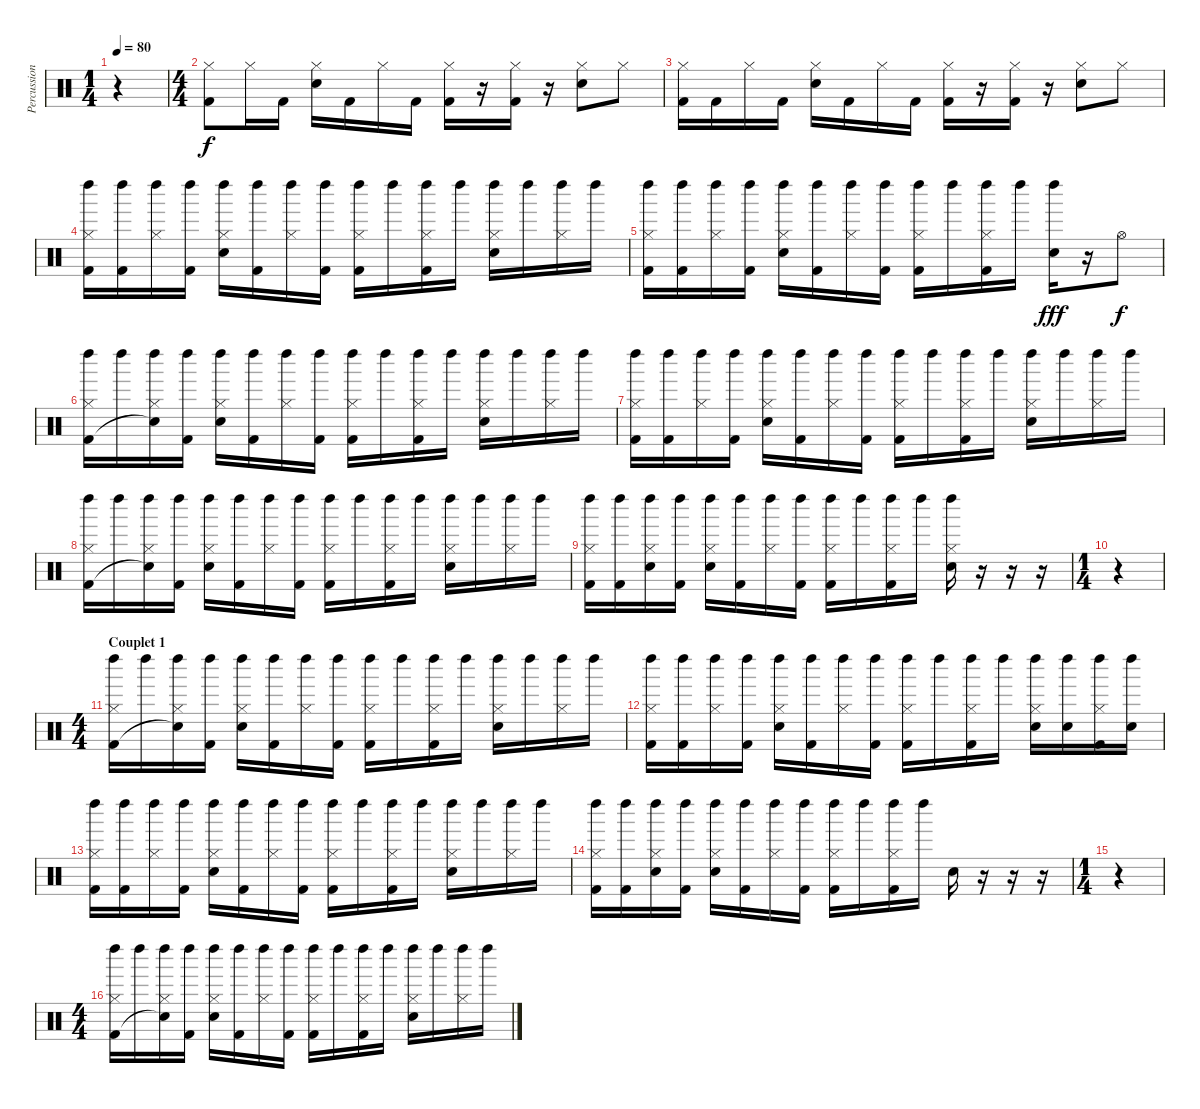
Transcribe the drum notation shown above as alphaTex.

\track ("Percussions" "Percussion") {instrument percussion}
\staff {score}
\articulation defaults
\ts (1 4)
\tempo 80
\clef neutral
\ks c
r.4{dy f} |
\ts (4 4)
("Hi-Hat (closed)" "Kick (hit) 2").8 "Hi-Hat (closed)".16 "Kick (hit) 2".16 ("Hi-Hat (closed)" "Electric Snare (hit)").16 "Kick (hit) 2".16 "Hi-Hat (closed)".16 "Kick (hit) 2".16 ("Hi-Hat (closed)" "Kick (hit) 2").16 r.16 ("Hi-Hat (closed)" "Kick (hit) 2").16 r.16 ("Hi-Hat (closed)" "Electric Snare (hit)").8 "Hi-Hat (closed)".8 |
("Hi-Hat (closed)" "Kick (hit) 2").16 "Kick (hit) 2".16 "Hi-Hat (closed)".16 "Kick (hit) 2".16 ("Hi-Hat (closed)" "Electric Snare (hit)").16 "Kick (hit) 2".16 "Hi-Hat (closed)".16 "Kick (hit) 2".16 ("Hi-Hat (closed)" "Kick (hit) 2").16 r.16 ("Hi-Hat (closed)" "Kick (hit) 2").16 r.16 ("Hi-Hat (closed)" "Electric Snare (hit)").8 "Hi-Hat (closed)".8 |
("Hi-Hat (closed)" "Kick (hit) 2" "Left Maraca (hit)").16 ("Kick (hit) 2" "Left Maraca (hit)").16 ("Hi-Hat (closed)" "Left Maraca (hit)").16 ("Kick (hit) 2" "Left Maraca (hit)").16 ("Hi-Hat (closed)" "Electric Snare (hit)" "Left Maraca (hit)").16 ("Kick (hit) 2" "Left Maraca (hit)").16 ("Hi-Hat (closed)" "Left Maraca (hit)").16 ("Kick (hit) 2" "Left Maraca (hit)").16 ("Hi-Hat (closed)" "Kick (hit) 2" "Left Maraca (hit)").16 "Left Maraca (hit)".16 ("Hi-Hat (closed)" "Kick (hit) 2" "Left Maraca (hit)").16 "Left Maraca (hit)".16 ("Hi-Hat (closed)" "Electric Snare (hit)" "Left Maraca (hit)").16 "Left Maraca (hit)".16 ("Hi-Hat (closed)" "Left Maraca (hit)").16 "Left Maraca (hit)".16 |
("Hi-Hat (closed)" "Kick (hit) 2" "Left Maraca (hit)").16 ("Kick (hit) 2" "Left Maraca (hit)").16 ("Hi-Hat (closed)" "Left Maraca (hit)").16 ("Kick (hit) 2" "Left Maraca (hit)").16 ("Hi-Hat (closed)" "Electric Snare (hit)" "Left Maraca (hit)").16 ("Kick (hit) 2" "Left Maraca (hit)").16 ("Hi-Hat (closed)" "Left Maraca (hit)").16 ("Kick (hit) 2" "Left Maraca (hit)").16 ("Hi-Hat (closed)" "Kick (hit) 2" "Left Maraca (hit)").16 "Left Maraca (hit)".16 ("Hi-Hat (closed)" "Kick (hit) 2" "Left Maraca (hit)").16 "Left Maraca (hit)".16 ("Electric Snare (hit)" "Left Maraca (hit)").16{dy fff} r.16 "Hi-Hat (open)".8{dy f} |
("Hi-Hat (closed)" "Kick (hit) 2" "Left Maraca (hit)").16 "Left Maraca (hit)".16 ("Hi-Hat (closed)" "Snare (hit)"{t} "Left Maraca (hit)").16 ("Kick (hit) 2" "Left Maraca (hit)").16 ("Hi-Hat (closed)" "Electric Snare (hit)" "Left Maraca (hit)").16 ("Kick (hit) 2" "Left Maraca (hit)").16 ("Hi-Hat (closed)" "Left Maraca (hit)").16 ("Kick (hit) 2" "Left Maraca (hit)").16 ("Hi-Hat (closed)" "Kick (hit) 2" "Left Maraca (hit)").16 "Left Maraca (hit)".16 ("Hi-Hat (closed)" "Kick (hit) 2" "Left Maraca (hit)").16 "Left Maraca (hit)".16 ("Hi-Hat (closed)" "Electric Snare (hit)" "Left Maraca (hit)").16 "Left Maraca (hit)".16 ("Hi-Hat (closed)" "Left Maraca (hit)").16 "Left Maraca (hit)".16 |
("Hi-Hat (closed)" "Kick (hit) 2" "Left Maraca (hit)").16 ("Kick (hit) 2" "Left Maraca (hit)").16 ("Hi-Hat (closed)" "Left Maraca (hit)").16 ("Kick (hit) 2" "Left Maraca (hit)").16 ("Hi-Hat (closed)" "Electric Snare (hit)" "Left Maraca (hit)").16 ("Kick (hit) 2" "Left Maraca (hit)").16 ("Hi-Hat (closed)" "Left Maraca (hit)").16 ("Kick (hit) 2" "Left Maraca (hit)").16 ("Hi-Hat (closed)" "Kick (hit) 2" "Left Maraca (hit)").16 "Left Maraca (hit)".16 ("Hi-Hat (closed)" "Kick (hit) 2" "Left Maraca (hit)").16 "Left Maraca (hit)".16 ("Hi-Hat (closed)" "Electric Snare (hit)" "Left Maraca (hit)").16 "Left Maraca (hit)".16 ("Hi-Hat (closed)" "Left Maraca (hit)").16 "Left Maraca (hit)".16 |
("Hi-Hat (closed)" "Kick (hit) 2" "Left Maraca (hit)").16 "Left Maraca (hit)".16 ("Hi-Hat (closed)" "Snare (hit)"{t} "Left Maraca (hit)").16 ("Kick (hit) 2" "Left Maraca (hit)").16 ("Hi-Hat (closed)" "Electric Snare (hit)" "Left Maraca (hit)").16 ("Kick (hit) 2" "Left Maraca (hit)").16 ("Hi-Hat (closed)" "Left Maraca (hit)").16 ("Kick (hit) 2" "Left Maraca (hit)").16 ("Hi-Hat (closed)" "Kick (hit) 2" "Left Maraca (hit)").16 "Left Maraca (hit)".16 ("Hi-Hat (closed)" "Kick (hit) 2" "Left Maraca (hit)").16 "Left Maraca (hit)".16 ("Hi-Hat (closed)" "Electric Snare (hit)" "Left Maraca (hit)").16 "Left Maraca (hit)".16 ("Hi-Hat (closed)" "Left Maraca (hit)").16 "Left Maraca (hit)".16 |
("Hi-Hat (closed)" "Kick (hit) 2" "Left Maraca (hit)").16 ("Kick (hit) 2" "Left Maraca (hit)").16 ("Hi-Hat (closed)" "Electric Snare (hit)" "Left Maraca (hit)").16 ("Kick (hit) 2" "Left Maraca (hit)").16 ("Hi-Hat (closed)" "Electric Snare (hit)" "Left Maraca (hit)").16 ("Kick (hit) 2" "Left Maraca (hit)").16 ("Hi-Hat (closed)" "Left Maraca (hit)").16 ("Kick (hit) 2" "Left Maraca (hit)").16 ("Hi-Hat (closed)" "Kick (hit) 2" "Left Maraca (hit)").16 "Left Maraca (hit)".16 ("Hi-Hat (closed)" "Kick (hit) 2" "Left Maraca (hit)").16 "Left Maraca (hit)".16 ("Hi-Hat (closed)" "Electric Snare (hit)" "Left Maraca (hit)").16 r.16 r.16 r.16 |
\ts (1 4)
r.4 |
\ts (4 4)
\section ("" "Couplet 1")
("Hi-Hat (closed)" "Kick (hit) 2" "Left Maraca (hit)").16 "Left Maraca (hit)".16 ("Hi-Hat (closed)" "Snare (hit)"{t} "Left Maraca (hit)").16 ("Kick (hit) 2" "Left Maraca (hit)").16 ("Hi-Hat (closed)" "Electric Snare (hit)" "Left Maraca (hit)").16 ("Kick (hit) 2" "Left Maraca (hit)").16 ("Hi-Hat (closed)" "Left Maraca (hit)").16 ("Kick (hit) 2" "Left Maraca (hit)").16 ("Hi-Hat (closed)" "Kick (hit) 2" "Left Maraca (hit)").16 "Left Maraca (hit)".16 ("Hi-Hat (closed)" "Kick (hit) 2" "Left Maraca (hit)").16 "Left Maraca (hit)".16 ("Hi-Hat (closed)" "Electric Snare (hit)" "Left Maraca (hit)").16 "Left Maraca (hit)".16 ("Hi-Hat (closed)" "Left Maraca (hit)").16 "Left Maraca (hit)".16 |
("Hi-Hat (closed)" "Kick (hit) 2" "Left Maraca (hit)").16 ("Kick (hit) 2" "Left Maraca (hit)").16 ("Hi-Hat (closed)" "Left Maraca (hit)").16 ("Kick (hit) 2" "Left Maraca (hit)").16 ("Hi-Hat (closed)" "Electric Snare (hit)" "Left Maraca (hit)").16 ("Kick (hit) 2" "Left Maraca (hit)").16 ("Hi-Hat (closed)" "Left Maraca (hit)").16 ("Kick (hit) 2" "Left Maraca (hit)").16 ("Hi-Hat (closed)" "Kick (hit) 2" "Left Maraca (hit)").16 "Left Maraca (hit)".16 ("Hi-Hat (closed)" "Kick (hit) 2" "Left Maraca (hit)").16 "Left Maraca (hit)".16 ("Hi-Hat (closed)" "Electric Snare (hit)" "Left Maraca (hit)").16 ("Electric Snare (hit)" "Left Maraca (hit)").16 ("Hi-Hat (closed)" "Kick (hit) 2" "Left Maraca (hit)").16 ("Electric Snare (hit)" "Left Maraca (hit)").16 |
("Hi-Hat (closed)" "Kick (hit) 2" "Left Maraca (hit)").16 ("Kick (hit) 2" "Left Maraca (hit)").16 ("Hi-Hat (closed)" "Left Maraca (hit)").16 ("Kick (hit) 2" "Left Maraca (hit)").16 ("Hi-Hat (closed)" "Electric Snare (hit)" "Left Maraca (hit)").16 ("Kick (hit) 2" "Left Maraca (hit)").16 ("Hi-Hat (closed)" "Left Maraca (hit)").16 ("Kick (hit) 2" "Left Maraca (hit)").16 ("Hi-Hat (closed)" "Kick (hit) 2" "Left Maraca (hit)").16 "Left Maraca (hit)".16 ("Hi-Hat (closed)" "Kick (hit) 2" "Left Maraca (hit)").16 "Left Maraca (hit)".16 ("Hi-Hat (closed)" "Electric Snare (hit)" "Left Maraca (hit)").16 "Left Maraca (hit)".16 ("Hi-Hat (closed)" "Left Maraca (hit)").16 "Left Maraca (hit)".16 |
("Hi-Hat (closed)" "Kick (hit) 2" "Left Maraca (hit)").16 ("Kick (hit) 2" "Left Maraca (hit)").16 ("Hi-Hat (closed)" "Electric Snare (hit)" "Left Maraca (hit)").16 ("Kick (hit) 2" "Left Maraca (hit)").16 ("Hi-Hat (closed)" "Electric Snare (hit)" "Left Maraca (hit)").16 ("Kick (hit) 2" "Left Maraca (hit)").16 ("Hi-Hat (closed)" "Left Maraca (hit)").16 ("Kick (hit) 2" "Left Maraca (hit)").16 ("Hi-Hat (closed)" "Kick (hit) 2" "Left Maraca (hit)").16 "Left Maraca (hit)".16 ("Hi-Hat (closed)" "Kick (hit) 2" "Left Maraca (hit)").16 "Left Maraca (hit)".16 "Electric Snare (hit)".16 r.16 r.16 r.16 |
\ts (1 4)
r.4 |
\ts (4 4)
("Hi-Hat (closed)" "Kick (hit) 2" "Left Maraca (hit)").16 "Left Maraca (hit)".16 ("Hi-Hat (closed)" "Snare (hit)"{t} "Left Maraca (hit)").16 ("Kick (hit) 2" "Left Maraca (hit)").16 ("Hi-Hat (closed)" "Electric Snare (hit)" "Left Maraca (hit)").16 ("Kick (hit) 2" "Left Maraca (hit)").16 ("Hi-Hat (closed)" "Left Maraca (hit)").16 ("Kick (hit) 2" "Left Maraca (hit)").16 ("Hi-Hat (closed)" "Kick (hit) 2" "Left Maraca (hit)").16 "Left Maraca (hit)".16 ("Hi-Hat (closed)" "Kick (hit) 2" "Left Maraca (hit)").16 "Left Maraca (hit)".16 ("Hi-Hat (closed)" "Electric Snare (hit)" "Left Maraca (hit)").16 "Left Maraca (hit)".16 ("Hi-Hat (closed)" "Left Maraca (hit)").16 "Left Maraca (hit)".16
